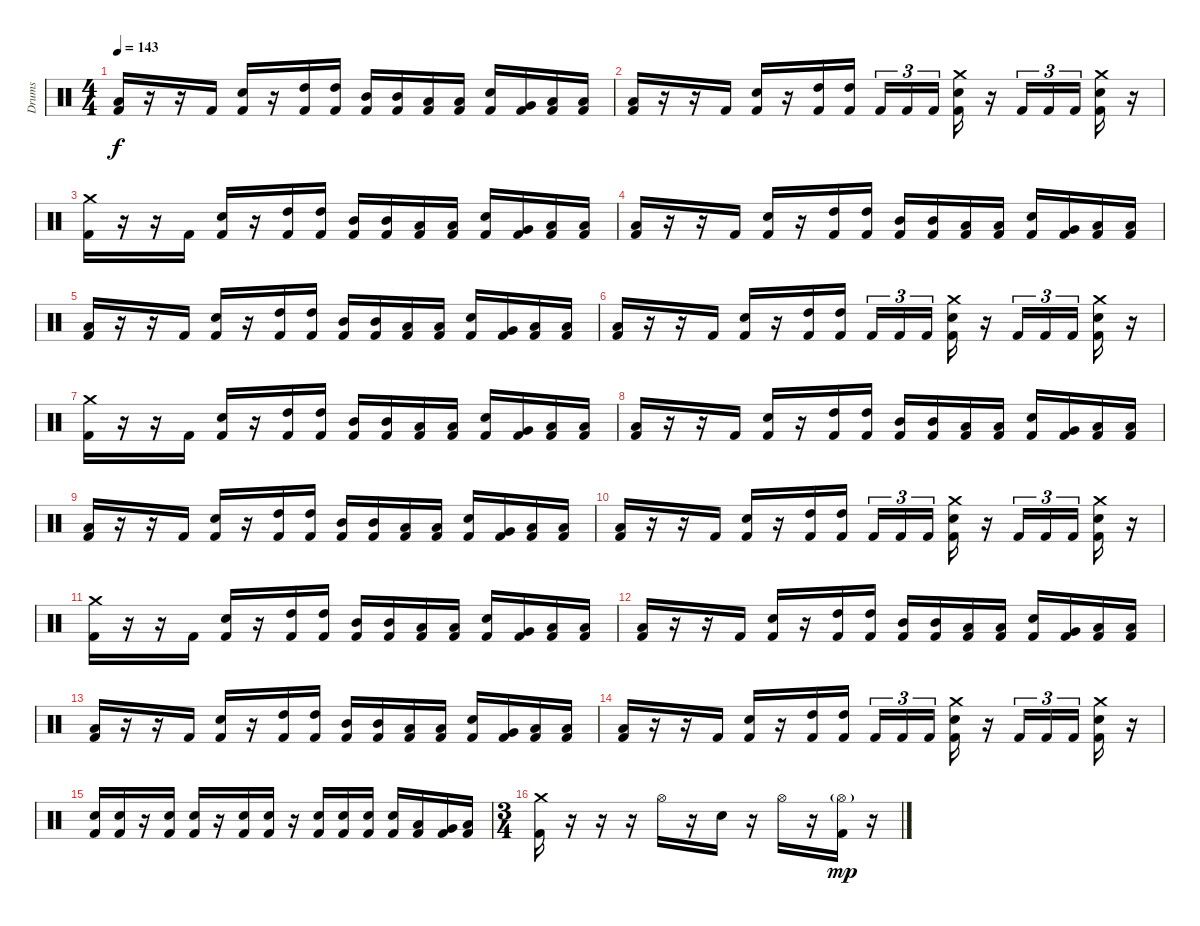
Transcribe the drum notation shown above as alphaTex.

\track ("Drums" "Drums") {instrument percussion}
\staff {score}
\articulation defaults
\ts (4 4)
\tempo 143
\clef neutral
\ks c
("Low Floor Tom (hit)" "Kick (hit) 2").16{dy f} r.16 r.16 "Kick (hit) 2".16 ("Electric Snare (hit)" "Kick (hit) 2").16 r.16 ("High Tom (hit)" "Kick (hit) 2").16 ("High Tom (hit)" "Kick (hit) 2").16 ("Mid Tom (hit)" "Kick (hit) 2").16 ("Mid Tom (hit)" "Kick (hit) 2").16 ("Low Tom (hit)" "Kick (hit) 2").16 ("Low Tom (hit)" "Kick (hit) 2").16 ("Electric Snare (hit)" "Kick (hit) 2").16 ("Very Low Tom (hit)" "Kick (hit) 2").16 ("Low Floor Tom (hit)" "Kick (hit) 2").16 ("Low Floor Tom (hit)" "Kick (hit) 2").16 |
("Low Floor Tom (hit)" "Kick (hit) 2").16 r.16 r.16 "Kick (hit) 2".16 ("Electric Snare (hit)" "Kick (hit) 2").16 r.16 ("High Tom (hit)" "Kick (hit) 2").16 ("High Tom (hit)" "Kick (hit) 2").16 "Kick (hit) 2".16{tu (3 2)} "Kick (hit) 2".16{tu (3 2)} "Kick (hit) 2".16{tu (3 2)} ("Crash medium (hit)" "Electric Snare (hit)" "Kick (hit) 2").16 r.16 "Kick (hit) 2".16{tu (3 2)} "Kick (hit) 2".16{tu (3 2)} "Kick (hit) 2".16{tu (3 2)} ("Crash medium (hit)" "Electric Snare (hit)" "Kick (hit) 2").16 r.16 |
("Crash medium (hit)" "Kick (hit) 2").16 r.16 r.16 "Kick (hit) 2".16 ("Electric Snare (hit)" "Kick (hit) 2").16 r.16 ("High Tom (hit)" "Kick (hit) 2").16 ("High Tom (hit)" "Kick (hit) 2").16 ("Mid Tom (hit)" "Kick (hit) 2").16 ("Mid Tom (hit)" "Kick (hit) 2").16 ("Low Tom (hit)" "Kick (hit) 2").16 ("Low Tom (hit)" "Kick (hit) 2").16 ("Electric Snare (hit)" "Kick (hit) 2").16 ("Very Low Tom (hit)" "Kick (hit) 2").16 ("Low Floor Tom (hit)" "Kick (hit) 2").16 ("Low Floor Tom (hit)" "Kick (hit) 2").16 |
("Low Floor Tom (hit)" "Kick (hit) 2").16 r.16 r.16 "Kick (hit) 2".16 ("Electric Snare (hit)" "Kick (hit) 2").16 r.16 ("High Tom (hit)" "Kick (hit) 2").16 ("High Tom (hit)" "Kick (hit) 2").16 ("Mid Tom (hit)" "Kick (hit) 2").16 ("Mid Tom (hit)" "Kick (hit) 2").16 ("Low Tom (hit)" "Kick (hit) 2").16 ("Low Tom (hit)" "Kick (hit) 2").16 ("Electric Snare (hit)" "Kick (hit) 2").16 ("Very Low Tom (hit)" "Kick (hit) 2").16 ("Low Floor Tom (hit)" "Kick (hit) 2").16 ("Low Floor Tom (hit)" "Kick (hit) 2").16 |
("Low Floor Tom (hit)" "Kick (hit) 2").16 r.16 r.16 "Kick (hit) 2".16 ("Electric Snare (hit)" "Kick (hit) 2").16 r.16 ("High Tom (hit)" "Kick (hit) 2").16 ("High Tom (hit)" "Kick (hit) 2").16 ("Mid Tom (hit)" "Kick (hit) 2").16 ("Mid Tom (hit)" "Kick (hit) 2").16 ("Low Tom (hit)" "Kick (hit) 2").16 ("Low Tom (hit)" "Kick (hit) 2").16 ("Electric Snare (hit)" "Kick (hit) 2").16 ("Very Low Tom (hit)" "Kick (hit) 2").16 ("Low Floor Tom (hit)" "Kick (hit) 2").16 ("Low Floor Tom (hit)" "Kick (hit) 2").16 |
("Low Floor Tom (hit)" "Kick (hit) 2").16 r.16 r.16 "Kick (hit) 2".16 ("Electric Snare (hit)" "Kick (hit) 2").16 r.16 ("High Tom (hit)" "Kick (hit) 2").16 ("High Tom (hit)" "Kick (hit) 2").16 "Kick (hit) 2".16{tu (3 2)} "Kick (hit) 2".16{tu (3 2)} "Kick (hit) 2".16{tu (3 2)} ("Crash medium (hit)" "Electric Snare (hit)" "Kick (hit) 2").16 r.16 "Kick (hit) 2".16{tu (3 2)} "Kick (hit) 2".16{tu (3 2)} "Kick (hit) 2".16{tu (3 2)} ("Crash medium (hit)" "Electric Snare (hit)" "Kick (hit) 2").16 r.16 |
("Crash medium (hit)" "Kick (hit) 2").16 r.16 r.16 "Kick (hit) 2".16 ("Electric Snare (hit)" "Kick (hit) 2").16 r.16 ("High Tom (hit)" "Kick (hit) 2").16 ("High Tom (hit)" "Kick (hit) 2").16 ("Mid Tom (hit)" "Kick (hit) 2").16 ("Mid Tom (hit)" "Kick (hit) 2").16 ("Low Tom (hit)" "Kick (hit) 2").16 ("Low Tom (hit)" "Kick (hit) 2").16 ("Electric Snare (hit)" "Kick (hit) 2").16 ("Very Low Tom (hit)" "Kick (hit) 2").16 ("Low Floor Tom (hit)" "Kick (hit) 2").16 ("Low Floor Tom (hit)" "Kick (hit) 2").16 |
("Low Floor Tom (hit)" "Kick (hit) 2").16 r.16 r.16 "Kick (hit) 2".16 ("Electric Snare (hit)" "Kick (hit) 2").16 r.16 ("High Tom (hit)" "Kick (hit) 2").16 ("High Tom (hit)" "Kick (hit) 2").16 ("Mid Tom (hit)" "Kick (hit) 2").16 ("Mid Tom (hit)" "Kick (hit) 2").16 ("Low Tom (hit)" "Kick (hit) 2").16 ("Low Tom (hit)" "Kick (hit) 2").16 ("Electric Snare (hit)" "Kick (hit) 2").16 ("Very Low Tom (hit)" "Kick (hit) 2").16 ("Low Floor Tom (hit)" "Kick (hit) 2").16 ("Low Floor Tom (hit)" "Kick (hit) 2").16 |
("Low Floor Tom (hit)" "Kick (hit) 2").16 r.16 r.16 "Kick (hit) 2".16 ("Electric Snare (hit)" "Kick (hit) 2").16 r.16 ("High Tom (hit)" "Kick (hit) 2").16 ("High Tom (hit)" "Kick (hit) 2").16 ("Mid Tom (hit)" "Kick (hit) 2").16 ("Mid Tom (hit)" "Kick (hit) 2").16 ("Low Tom (hit)" "Kick (hit) 2").16 ("Low Tom (hit)" "Kick (hit) 2").16 ("Electric Snare (hit)" "Kick (hit) 2").16 ("Very Low Tom (hit)" "Kick (hit) 2").16 ("Low Floor Tom (hit)" "Kick (hit) 2").16 ("Low Floor Tom (hit)" "Kick (hit) 2").16 |
("Low Floor Tom (hit)" "Kick (hit) 2").16 r.16 r.16 "Kick (hit) 2".16 ("Electric Snare (hit)" "Kick (hit) 2").16 r.16 ("High Tom (hit)" "Kick (hit) 2").16 ("High Tom (hit)" "Kick (hit) 2").16 "Kick (hit) 2".16{tu (3 2)} "Kick (hit) 2".16{tu (3 2)} "Kick (hit) 2".16{tu (3 2)} ("Crash medium (hit)" "Electric Snare (hit)" "Kick (hit) 2").16 r.16 "Kick (hit) 2".16{tu (3 2)} "Kick (hit) 2".16{tu (3 2)} "Kick (hit) 2".16{tu (3 2)} ("Crash medium (hit)" "Electric Snare (hit)" "Kick (hit) 2").16 r.16 |
("Crash medium (hit)" "Kick (hit) 2").16 r.16 r.16 "Kick (hit) 2".16 ("Electric Snare (hit)" "Kick (hit) 2").16 r.16 ("High Tom (hit)" "Kick (hit) 2").16 ("High Tom (hit)" "Kick (hit) 2").16 ("Mid Tom (hit)" "Kick (hit) 2").16 ("Mid Tom (hit)" "Kick (hit) 2").16 ("Low Tom (hit)" "Kick (hit) 2").16 ("Low Tom (hit)" "Kick (hit) 2").16 ("Electric Snare (hit)" "Kick (hit) 2").16 ("Very Low Tom (hit)" "Kick (hit) 2").16 ("Low Floor Tom (hit)" "Kick (hit) 2").16 ("Low Floor Tom (hit)" "Kick (hit) 2").16 |
("Low Floor Tom (hit)" "Kick (hit) 2").16 r.16 r.16 "Kick (hit) 2".16 ("Electric Snare (hit)" "Kick (hit) 2").16 r.16 ("High Tom (hit)" "Kick (hit) 2").16 ("High Tom (hit)" "Kick (hit) 2").16 ("Mid Tom (hit)" "Kick (hit) 2").16 ("Mid Tom (hit)" "Kick (hit) 2").16 ("Low Tom (hit)" "Kick (hit) 2").16 ("Low Tom (hit)" "Kick (hit) 2").16 ("Electric Snare (hit)" "Kick (hit) 2").16 ("Very Low Tom (hit)" "Kick (hit) 2").16 ("Low Floor Tom (hit)" "Kick (hit) 2").16 ("Low Floor Tom (hit)" "Kick (hit) 2").16 |
("Low Floor Tom (hit)" "Kick (hit) 2").16 r.16 r.16 "Kick (hit) 2".16 ("Electric Snare (hit)" "Kick (hit) 2").16 r.16 ("High Tom (hit)" "Kick (hit) 2").16 ("High Tom (hit)" "Kick (hit) 2").16 ("Mid Tom (hit)" "Kick (hit) 2").16 ("Mid Tom (hit)" "Kick (hit) 2").16 ("Low Tom (hit)" "Kick (hit) 2").16 ("Low Tom (hit)" "Kick (hit) 2").16 ("Electric Snare (hit)" "Kick (hit) 2").16 ("Very Low Tom (hit)" "Kick (hit) 2").16 ("Low Floor Tom (hit)" "Kick (hit) 2").16 ("Low Floor Tom (hit)" "Kick (hit) 2").16 |
("Low Floor Tom (hit)" "Kick (hit) 2").16 r.16 r.16 "Kick (hit) 2".16 ("Electric Snare (hit)" "Kick (hit) 2").16 r.16 ("High Tom (hit)" "Kick (hit) 2").16 ("High Tom (hit)" "Kick (hit) 2").16 "Kick (hit) 2".16{tu (3 2)} "Kick (hit) 2".16{tu (3 2)} "Kick (hit) 2".16{tu (3 2)} ("Crash medium (hit)" "Electric Snare (hit)" "Kick (hit) 2").16 r.16 "Kick (hit) 2".16{tu (3 2)} "Kick (hit) 2".16{tu (3 2)} "Kick (hit) 2".16{tu (3 2)} ("Crash medium (hit)" "Electric Snare (hit)" "Kick (hit) 2").16 r.16 |
("Electric Snare (hit)" "Kick (hit) 2").16 ("Electric Snare (hit)" "Kick (hit) 2").16 r.16 ("Electric Snare (hit)" "Kick (hit) 2").16 ("Electric Snare (hit)" "Kick (hit) 2").16 r.16 ("Electric Snare (hit)" "Kick (hit) 2").16 ("Electric Snare (hit)" "Kick (hit) 2").16 r.16 ("Electric Snare (hit)" "Kick (hit) 2").16 ("Electric Snare (hit)" "Kick (hit) 2").16 ("Electric Snare (hit)" "Kick (hit) 2").16 ("Electric Snare (hit)" "Kick (hit) 2").16 ("Low Tom (hit)" "Kick (hit) 2").16 ("Very Low Tom (hit)" "Kick (hit) 2").16 ("Low Floor Tom (hit)" "Kick (hit) 2").16 |
\ts (3 4)
\section ("" "")
("Crash medium (hit)" "Kick (hit) 2").16 r.16 r.16 r.16 "Hi-Hat (open)".16 r.16 "Electric Snare (hit)".16 r.16 "Hi-Hat (open)".16 r.16 ("Hi-Hat (open)"{g} "Kick (hit) 2").16{dy mp} r.16
